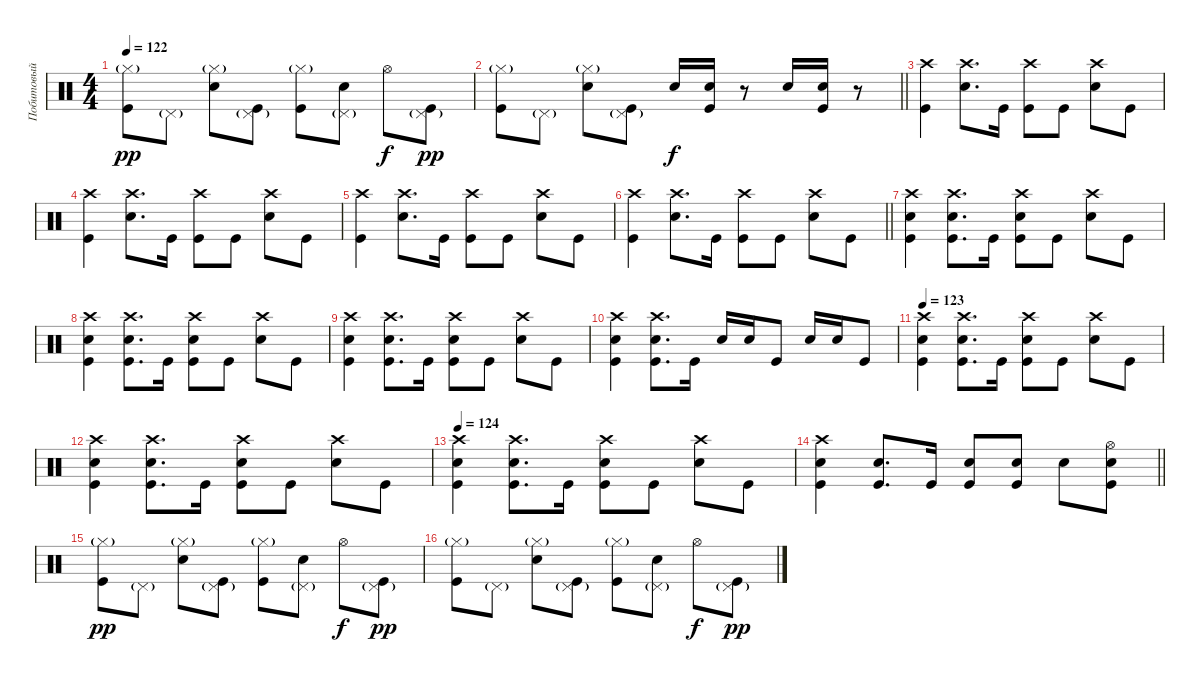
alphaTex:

\track ("Побитовый" "Побитовый") {instrument percussion}
\staff {score}
\articulation defaults
\ts (4 4)
\tempo 122
\clef neutral
\ks c
("Hi-Hat (closed)"{g} "Kick (hit)").8{dy pp} "Pedal Hi-Hat (hit)"{g}.8 ("Hi-Hat (closed)"{g} "Snare (hit) 2").8 ("Pedal Hi-Hat (hit)"{g} "Kick (hit)").8 ("Hi-Hat (closed)"{g} "Kick (hit)").8 ("Pedal Hi-Hat (hit)"{g} "Snare (hit) 2").8 "Hi-Hat (open)".8{dy f} ("Pedal Hi-Hat (hit)"{g} "Kick (hit)").8{dy pp} |
\barLineRight lightlight
("Hi-Hat (closed)"{g} "Kick (hit)").8 "Pedal Hi-Hat (hit)"{g}.8 ("Hi-Hat (closed)"{g} "Snare (hit) 2").8 ("Pedal Hi-Hat (hit)"{g} "Kick (hit)").8 "Snare (hit) 2".16{dy f} ("Snare (hit) 2" "Kick (hit)").16 r.8 "Snare (hit) 2".16 ("Snare (hit) 2" "Kick (hit)").16 r.8 |
("Crash high (hit)" "Kick (hit)").4 ("Crash high (hit)" "Snare (hit) 2").8{d} "Kick (hit)".16 ("Crash high (hit)" "Kick (hit)").8 "Kick (hit)".8 ("Crash high (hit)" "Snare (hit) 2").8 "Kick (hit)".8 |
("Crash high (hit)" "Kick (hit)").4 ("Crash high (hit)" "Snare (hit) 2").8{d} "Kick (hit)".16 ("Crash high (hit)" "Kick (hit)").8 "Kick (hit)".8 ("Crash high (hit)" "Snare (hit) 2").8 "Kick (hit)".8 |
("Crash high (hit)" "Kick (hit)").4 ("Crash high (hit)" "Snare (hit) 2").8{d} "Kick (hit)".16 ("Crash high (hit)" "Kick (hit)").8 "Kick (hit)".8 ("Crash high (hit)" "Snare (hit) 2").8 "Kick (hit)".8 |
\barLineRight lightlight
("Crash high (hit)" "Kick (hit)").4 ("Crash high (hit)" "Snare (hit) 2").8{d} "Kick (hit)".16 ("Crash high (hit)" "Kick (hit)").8 "Kick (hit)".8 ("Crash high (hit)" "Snare (hit) 2").8 "Kick (hit)".8 |
("Crash high (hit)" "Snare (hit) 2" "Kick (hit)").4 ("Crash high (hit)" "Snare (hit) 2" "Kick (hit)").8{d} "Kick (hit)".16 ("Crash high (hit)" "Snare (hit) 2" "Kick (hit)").8 "Kick (hit)".8 ("Crash high (hit)" "Snare (hit) 2").8 "Kick (hit)".8 |
("Crash high (hit)" "Snare (hit) 2" "Kick (hit)").4 ("Crash high (hit)" "Snare (hit) 2" "Kick (hit)").8{d} "Kick (hit)".16 ("Crash high (hit)" "Snare (hit) 2" "Kick (hit)").8 "Kick (hit)".8 ("Crash high (hit)" "Snare (hit) 2").8 "Kick (hit)".8 |
("Crash high (hit)" "Snare (hit) 2" "Kick (hit)").4 ("Crash high (hit)" "Snare (hit) 2" "Kick (hit)").8{d} "Kick (hit)".16 ("Crash high (hit)" "Snare (hit) 2" "Kick (hit)").8 "Kick (hit)".8 ("Crash high (hit)" "Snare (hit) 2").8 "Kick (hit)".8 |
("Crash high (hit)" "Snare (hit) 2" "Kick (hit)").4 ("Crash high (hit)" "Snare (hit) 2" "Kick (hit)").8{d} "Kick (hit)".16 "Snare (hit) 2".16 "Snare (hit) 2".16 "Kick (hit)".8 "Snare (hit) 2".16 "Snare (hit) 2".16 "Kick (hit)".8 |
\tempo 123
("Crash high (hit)" "Snare (hit) 2" "Kick (hit)").4 ("Crash high (hit)" "Snare (hit) 2" "Kick (hit)").8{d} "Kick (hit)".16 ("Crash high (hit)" "Snare (hit) 2" "Kick (hit)").8 "Kick (hit)".8 ("Crash high (hit)" "Snare (hit) 2").8 "Kick (hit)".8 |
("Crash high (hit)" "Snare (hit) 2" "Kick (hit)").4 ("Crash high (hit)" "Snare (hit) 2" "Kick (hit)").8{d} "Kick (hit)".16 ("Crash high (hit)" "Snare (hit) 2" "Kick (hit)").8 "Kick (hit)".8 ("Crash high (hit)" "Snare (hit) 2").8 "Kick (hit)".8 |
\tempo 124
("Crash high (hit)" "Snare (hit) 2" "Kick (hit)").4 ("Crash high (hit)" "Snare (hit) 2" "Kick (hit)").8{d} "Kick (hit)".16 ("Crash high (hit)" "Snare (hit) 2" "Kick (hit)").8 "Kick (hit)".8 ("Crash high (hit)" "Snare (hit) 2").8 "Kick (hit)".8 |
\barLineRight lightlight
("Crash high (hit)" "Snare (hit) 2" "Kick (hit)").4 ("Snare (hit) 2" "Kick (hit)").8{d} "Kick (hit)".16 ("Snare (hit) 2" "Kick (hit)").8 ("Snare (hit) 2" "Kick (hit)").8 "Snare (hit) 2".8 ("Hi-Hat (open)" "Snare (hit) 2" "Kick (hit)").8 |
("Hi-Hat (closed)"{g} "Kick (hit)").8{dy pp} "Pedal Hi-Hat (hit)"{g}.8 ("Hi-Hat (closed)"{g} "Snare (hit) 2").8 ("Pedal Hi-Hat (hit)"{g} "Kick (hit)").8 ("Hi-Hat (closed)"{g} "Kick (hit)").8 ("Pedal Hi-Hat (hit)"{g} "Snare (hit) 2").8 "Hi-Hat (open)".8{dy f} ("Pedal Hi-Hat (hit)"{g} "Kick (hit)").8{dy pp} |
("Hi-Hat (closed)"{g} "Kick (hit)").8 "Pedal Hi-Hat (hit)"{g}.8 ("Hi-Hat (closed)"{g} "Snare (hit) 2").8 ("Pedal Hi-Hat (hit)"{g} "Kick (hit)").8 ("Hi-Hat (closed)"{g} "Kick (hit)").8 ("Pedal Hi-Hat (hit)"{g} "Snare (hit) 2").8 "Hi-Hat (open)".8{dy f} ("Pedal Hi-Hat (hit)"{g} "Kick (hit)").8{dy pp}
